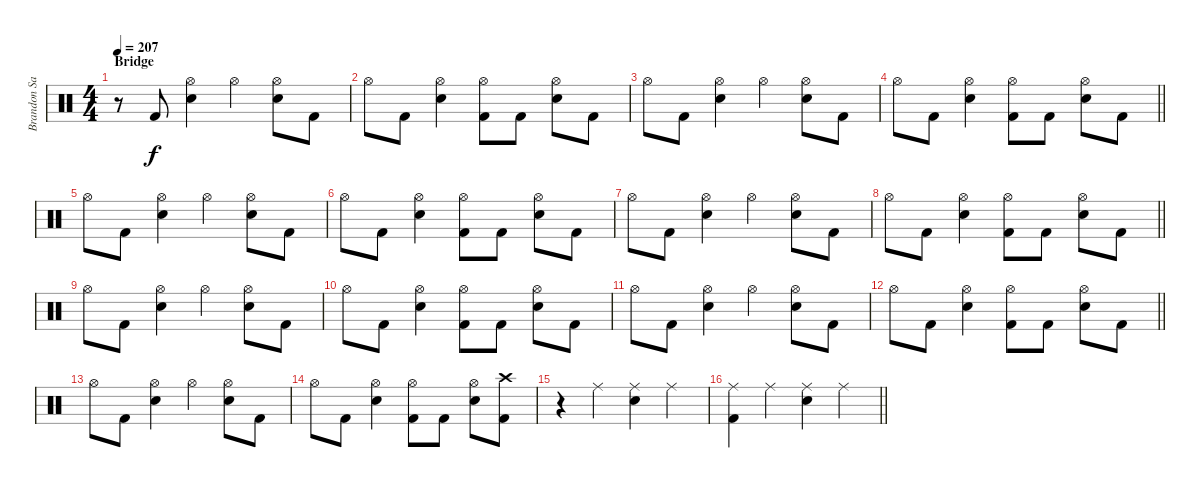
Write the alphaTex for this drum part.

\track ("Brandon Saller" "Brandon Sa") {instrument percussion}
\staff {score}
\articulation defaults
\ts (4 4)
\section ("" "Bridge")
\tempo 207
\clef neutral
\ks c
r.8{dy f} "Kick (hit) 2".8 ("Hi-Hat (open)" "Electric Snare (hit)").4 "Hi-Hat (open)".4 ("Hi-Hat (open)" "Electric Snare (hit)").8 "Kick (hit) 2".8 |
"Hi-Hat (open)".8 "Kick (hit) 2".8 ("Hi-Hat (open)" "Electric Snare (hit)").4 ("Hi-Hat (open)" "Kick (hit) 2").8 "Kick (hit) 2".8 ("Hi-Hat (open)" "Electric Snare (hit)").8 "Kick (hit) 2".8 |
"Hi-Hat (open)".8 "Kick (hit) 2".8 ("Hi-Hat (open)" "Electric Snare (hit)").4 "Hi-Hat (open)".4 ("Hi-Hat (open)" "Electric Snare (hit)").8 "Kick (hit) 2".8 |
\barLineRight lightlight "Hi-Hat (open)".8 "Kick (hit) 2".8
("Hi-Hat (open)" "Electric Snare (hit)").4 ("Hi-Hat (open)" "Kick (hit) 2").8 "Kick (hit) 2".8 ("Hi-Hat (open)" "Electric Snare (hit)").8 "Kick (hit) 2".8 |
"Hi-Hat (open)".8 "Kick (hit) 2".8 ("Hi-Hat (open)" "Electric Snare (hit)").4 "Hi-Hat (open)".4 ("Hi-Hat (open)" "Electric Snare (hit)").8 "Kick (hit) 2".8 |
"Hi-Hat (open)".8 "Kick (hit) 2".8 ("Hi-Hat (open)" "Electric Snare (hit)").4 ("Hi-Hat (open)" "Kick (hit) 2").8 "Kick (hit) 2".8 ("Hi-Hat (open)" "Electric Snare (hit)").8 "Kick (hit) 2".8 |
"Hi-Hat (open)".8 "Kick (hit) 2".8 ("Hi-Hat (open)" "Electric Snare (hit)").4 "Hi-Hat (open)".4 ("Hi-Hat (open)" "Electric Snare (hit)").8 "Kick (hit) 2".8 |
\barLineRight lightlight "Hi-Hat (open)".8 "Kick (hit) 2".8
("Hi-Hat (open)" "Electric Snare (hit)").4 ("Hi-Hat (open)" "Kick (hit) 2").8 "Kick (hit) 2".8 ("Hi-Hat (open)" "Electric Snare (hit)").8 "Kick (hit) 2".8 |
"Hi-Hat (open)".8 "Kick (hit) 2".8 ("Hi-Hat (open)" "Electric Snare (hit)").4 "Hi-Hat (open)".4 ("Hi-Hat (open)" "Electric Snare (hit)").8 "Kick (hit) 2".8 |
"Hi-Hat (open)".8 "Kick (hit) 2".8 ("Hi-Hat (open)" "Electric Snare (hit)").4 ("Hi-Hat (open)" "Kick (hit) 2").8 "Kick (hit) 2".8 ("Hi-Hat (open)" "Electric Snare (hit)").8 "Kick (hit) 2".8 |
"Hi-Hat (open)".8 "Kick (hit) 2".8 ("Hi-Hat (open)" "Electric Snare (hit)").4 "Hi-Hat (open)".4 ("Hi-Hat (open)" "Electric Snare (hit)").8 "Kick (hit) 2".8 |
\barLineRight lightlight "Hi-Hat (open)".8 "Kick (hit) 2".8
("Hi-Hat (open)" "Electric Snare (hit)").4 ("Hi-Hat (open)" "Kick (hit) 2").8 "Kick (hit) 2".8 ("Hi-Hat (open)" "Electric Snare (hit)").8 "Kick (hit) 2".8 |
"Hi-Hat (open)".8 "Kick (hit) 2".8 ("Hi-Hat (open)" "Electric Snare (hit)").4 "Hi-Hat (open)".4 ("Hi-Hat (open)" "Electric Snare (hit)").8 "Kick (hit) 2".8 |
"Hi-Hat (open)".8 "Kick (hit) 2".8 ("Hi-Hat (open)" "Electric Snare (hit)").4 ("Hi-Hat (open)" "Kick (hit) 2").8 "Kick (hit) 2".8 ("Hi-Hat (open)" "Electric Snare (hit)").8 ("Crash high (hit)" "Kick (hit) 2").8 |
r.4 "Ride (middle)".4 ("Ride (middle)" "Electric Snare (hit)").4 "Ride (middle)".4 |
\barLineRight lightlight
("Ride (middle)" "Kick (hit) 2").4 "Ride (middle)".4 ("Ride (middle)" "Electric Snare (hit)").4 "Ride (middle)".4
